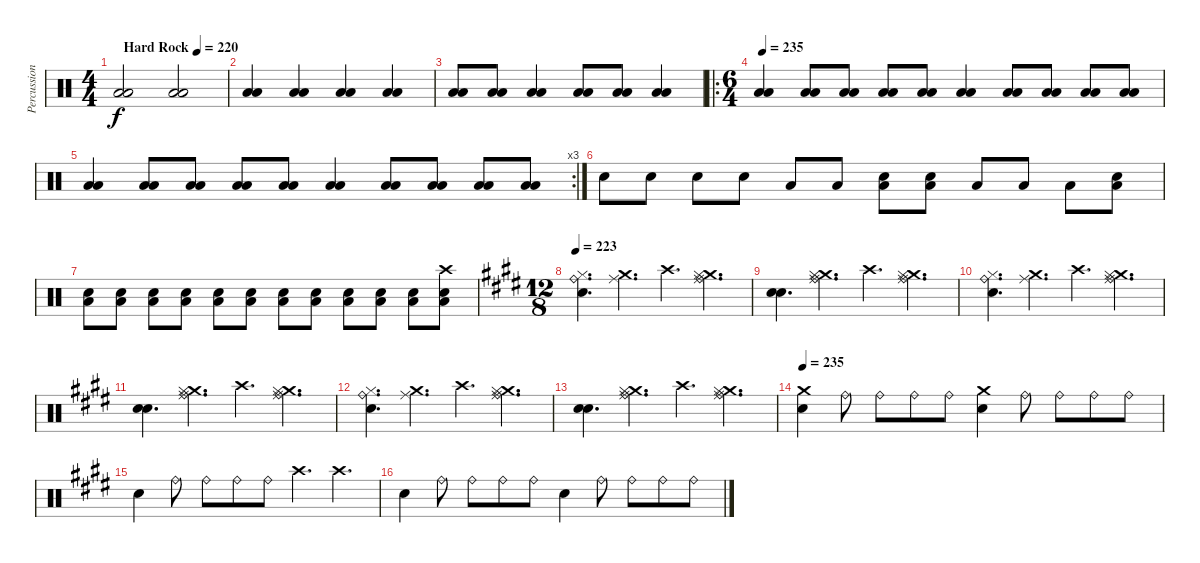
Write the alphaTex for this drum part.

\track ("Percussion" "Percussion") {instrument percussion}
\staff {score}
\articulation defaults
\ts (4 4)
\tempo (220 "Hard Rock")
\clef neutral
\ks c
("Low Tom (hit)" "Low Tom (hit)").2{dy f} ("Low Tom (hit)" "Low Tom (hit)").2 |
("Low Tom (hit)" "Low Tom (hit)").4 ("Low Tom (hit)" "Low Tom (hit)").4 ("Low Tom (hit)" "Low Tom (hit)").4 ("Low Tom (hit)" "Low Tom (hit)").4 |
("Low Tom (hit)" "Low Tom (hit)").8 ("Low Tom (hit)" "Low Tom (hit)").8 ("Low Tom (hit)" "Low Tom (hit)").4 ("Low Tom (hit)" "Low Tom (hit)").8 ("Low Tom (hit)" "Low Tom (hit)").8 ("Low Tom (hit)" "Low Tom (hit)").4 |
\ro
\ts (6 4)
\tempo 235
("Low Tom (hit)" "Low Tom (hit)").4 ("Low Tom (hit)" "Low Tom (hit)").8 ("Low Tom (hit)" "Low Tom (hit)").8 ("Low Tom (hit)" "Low Tom (hit)").8 ("Low Tom (hit)" "Low Tom (hit)").8 ("Low Tom (hit)" "Low Tom (hit)").4 ("Low Tom (hit)" "Low Tom (hit)").8 ("Low Tom (hit)" "Low Tom (hit)").8 ("Low Tom (hit)" "Low Tom (hit)").8 ("Low Tom (hit)" "Low Tom (hit)").8 |
\rc 3
("Low Tom (hit)" "Low Tom (hit)").4 ("Low Tom (hit)" "Low Tom (hit)").8 ("Low Tom (hit)" "Low Tom (hit)").8 ("Low Tom (hit)" "Low Tom (hit)").8 ("Low Tom (hit)" "Low Tom (hit)").8 ("Low Tom (hit)" "Low Tom (hit)").4 ("Low Tom (hit)" "Low Tom (hit)").8 ("Low Tom (hit)" "Low Tom (hit)").8 ("Low Tom (hit)" "Low Tom (hit)").8 ("Low Tom (hit)" "Low Tom (hit)").8 |
"Snare (hit) 2".8 "Snare (hit) 2".8 "Snare (hit) 2".8 "Snare (hit) 2".8 "Low Tom (hit)".8 "Low Tom (hit)".8 ("Low Tom (hit)" "Snare (hit) 2").8 ("Low Tom (hit)" "Snare (hit) 2").8 "Low Tom (hit)".8 "Low Tom (hit)".8 "Low Tom (hit)".8 ("Low Tom (hit)" "Snare (hit) 2").8 |
("Low Tom (hit)" "Snare (hit) 2").8 ("Low Tom (hit)" "Snare (hit) 2").8 ("Low Tom (hit)" "Snare (hit) 2").8 ("Low Tom (hit)" "Snare (hit) 2").8 ("Low Tom (hit)" "Snare (hit) 2").8 ("Low Tom (hit)" "Snare (hit) 2").8 ("Low Tom (hit)" "Snare (hit) 2").8 ("Low Tom (hit)" "Snare (hit) 2").8 ("Low Tom (hit)" "Snare (hit) 2").8 ("Low Tom (hit)" "Snare (hit) 2").8 ("Low Tom (hit)" "Snare (hit) 2").8 ("Crash high (hit)" "Low Tom (hit)" "Snare (hit) 2").8 |
\ts (12 8)
\tempo 223
\ks e
("Hi-Hat (closed)" "Snare (hit) 2" "Ride (bell)").4{d} ("Ride (middle)" "Crash medium (hit)").4{d} "Crash high (hit)".4{d} ("Ride (middle)" "Crash medium (hit)" "Hi-Hat (closed)" "Ride (bell)").4{d} |
("Snare (hit) 2" "Snare (hit) 2").4{d} ("Ride (middle)" "Crash medium (hit)" "Hi-Hat (closed)" "Ride (bell)").4{d} "Crash high (hit)".4{d} ("Ride (middle)" "Crash medium (hit)" "Hi-Hat (closed)" "Ride (bell)").4{d} |
("Hi-Hat (closed)" "Snare (hit) 2" "Ride (bell)").4{d} ("Ride (middle)" "Crash medium (hit)").4{d} "Crash high (hit)".4{d} ("Ride (middle)" "Crash medium (hit)" "Hi-Hat (closed)" "Ride (bell)").4{d} |
("Snare (hit) 2" "Snare (hit) 2").4{d} ("Ride (middle)" "Crash medium (hit)" "Hi-Hat (closed)" "Ride (bell)").4{d} "Crash high (hit)".4{d} ("Ride (middle)" "Crash medium (hit)" "Hi-Hat (closed)" "Ride (bell)").4{d} |
("Hi-Hat (closed)" "Snare (hit) 2" "Ride (bell)").4{d} ("Ride (middle)" "Crash medium (hit)").4{d} "Crash high (hit)".4{d} ("Ride (middle)" "Crash medium (hit)" "Hi-Hat (closed)" "Ride (bell)").4{d} |
("Snare (hit) 2" "Snare (hit) 2").4{d} ("Ride (middle)" "Crash medium (hit)" "Hi-Hat (closed)" "Ride (bell)").4{d} "Crash high (hit)".4{d} ("Ride (middle)" "Crash medium (hit)" "Hi-Hat (closed)" "Ride (bell)").4{d} |
\tempo 235
("Snare (hit) 2" "Crash medium (hit)").4 "Ride (bell)".8 "Ride (bell)".8 "Ride (bell)".8 "Ride (bell)".8 ("Snare (hit) 2" "Crash medium (hit)").4 "Ride (bell)".8 "Ride (bell)".8 "Ride (bell)".8 "Ride (bell)".8 |
"Snare (hit) 2".4 "Ride (bell)".8 "Ride (bell)".8 "Ride (bell)".8 "Ride (bell)".8 "Crash high (hit)".4{d} "Crash high (hit)".4{d} |
"Snare (hit) 2".4 "Ride (bell)".8 "Ride (bell)".8 "Ride (bell)".8 "Ride (bell)".8 "Snare (hit) 2".4 "Ride (bell)".8 "Ride (bell)".8 "Ride (bell)".8 "Ride (bell)".8
